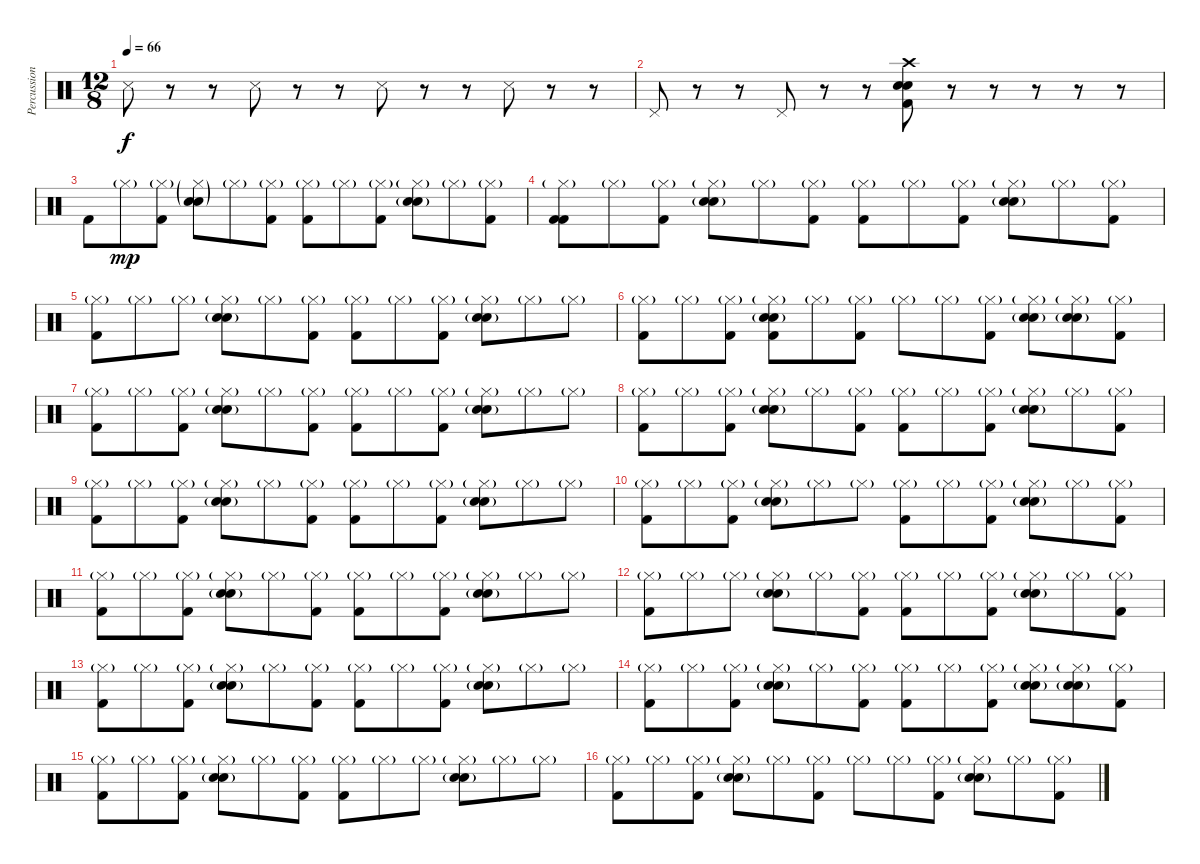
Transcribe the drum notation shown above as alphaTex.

\track ("Percussion" "Percussion") {instrument percussion}
\staff {score}
\articulation defaults
\ts (12 8)
\tempo 66
\clef neutral
\ks c "Snare (side stick) 3".8{dy f}
r.8 r.8 "Snare (side stick) 3".8 r.8 r.8 "Snare (side stick) 3".8 r.8 r.8 "Snare (side stick) 3".8 r.8 r.8 |
"Pedal Hi-Hat (hit)".8 r.8 r.8 "Pedal Hi-Hat (hit)".8 r.8 r.8 ("Crash high (hit)" "Electric Snare (hit)" "Snare (hit) 2" "Kick (hit) 2").8 r.8 r.8 r.8 r.8 r.8 |
"Kick (hit) 2".8 "Hi-Hat (closed)"{g}.8{dy mp} ("Hi-Hat (closed)"{g} "Kick (hit) 2").8 ("Hi-Hat (closed)"{g} "Electric Snare (hit)"{g} "Snare (hit) 2").8 "Hi-Hat (closed)"{g}.8 ("Hi-Hat (closed)"{g} "Kick (hit) 2").8 ("Hi-Hat (closed)"{g} "Kick (hit) 2").8 "Hi-Hat (closed)"{g}.8 ("Hi-Hat (closed)"{g} "Kick (hit) 2").8 ("Hi-Hat (closed)"{g} "Snare (hit) 2" "Electric Snare (hit)"{g}).8 "Hi-Hat (closed)"{g}.8 ("Hi-Hat (closed)"{g} "Kick (hit) 2").8 |
("Hi-Hat (closed)"{g} "Kick (hit) 2" "Kick (hit) 2").8 "Hi-Hat (closed)"{g}.8 ("Hi-Hat (closed)"{g} "Kick (hit) 2").8 ("Hi-Hat (closed)"{g} "Snare (hit) 2" "Electric Snare (hit)"{g}).8 "Hi-Hat (closed)"{g}.8 ("Hi-Hat (closed)"{g} "Kick (hit) 2").8 ("Hi-Hat (closed)"{g} "Kick (hit) 2").8 "Hi-Hat (closed)"{g}.8 ("Hi-Hat (closed)"{g} "Kick (hit) 2").8 ("Hi-Hat (closed)"{g} "Snare (hit) 2" "Electric Snare (hit)"{g}).8 "Hi-Hat (closed)"{g}.8 ("Hi-Hat (closed)"{g} "Kick (hit) 2").8 |
("Hi-Hat (closed)"{g} "Kick (hit) 2").8 "Hi-Hat (closed)"{g}.8 "Hi-Hat (closed)"{g}.8 ("Hi-Hat (closed)"{g} "Snare (hit) 2" "Electric Snare (hit)"{g}).8 "Hi-Hat (closed)"{g}.8 ("Hi-Hat (closed)"{g} "Kick (hit) 2").8 ("Hi-Hat (closed)"{g} "Kick (hit) 2").8 "Hi-Hat (closed)"{g}.8 ("Hi-Hat (closed)"{g} "Kick (hit) 2").8 ("Hi-Hat (closed)"{g} "Snare (hit) 2" "Electric Snare (hit)"{g}).8 "Hi-Hat (closed)"{g}.8 "Hi-Hat (closed)"{g}.8 |
("Hi-Hat (closed)"{g} "Kick (hit) 2").8 "Hi-Hat (closed)"{g}.8 ("Hi-Hat (closed)"{g} "Kick (hit) 2").8 ("Hi-Hat (closed)"{g} "Kick (hit) 2" "Snare (hit) 2" "Electric Snare (hit)"{g}).8 "Hi-Hat (closed)"{g}.8 ("Hi-Hat (closed)"{g} "Kick (hit) 2").8 "Hi-Hat (closed)"{g}.8 "Hi-Hat (closed)"{g}.8 ("Hi-Hat (closed)"{g} "Kick (hit) 2").8 ("Hi-Hat (closed)"{g} "Snare (hit) 2" "Electric Snare (hit)"{g}).8 ("Hi-Hat (closed)"{g} "Snare (hit) 2" "Electric Snare (hit)"{g}).8 ("Hi-Hat (closed)"{g} "Kick (hit) 2").8 |
("Hi-Hat (closed)"{g} "Kick (hit) 2").8 "Hi-Hat (closed)"{g}.8 ("Hi-Hat (closed)"{g} "Kick (hit) 2").8 ("Hi-Hat (closed)"{g} "Snare (hit) 2" "Electric Snare (hit)"{g}).8 "Hi-Hat (closed)"{g}.8 ("Hi-Hat (closed)"{g} "Kick (hit) 2").8 ("Hi-Hat (closed)"{g} "Kick (hit) 2").8 "Hi-Hat (closed)"{g}.8 ("Hi-Hat (closed)"{g} "Kick (hit) 2").8 ("Hi-Hat (closed)"{g} "Snare (hit) 2" "Electric Snare (hit)"{g}).8 "Hi-Hat (closed)"{g}.8 "Hi-Hat (closed)"{g}.8 |
("Hi-Hat (closed)"{g} "Kick (hit) 2").8 "Hi-Hat (closed)"{g}.8 ("Hi-Hat (closed)"{g} "Kick (hit) 2").8 ("Hi-Hat (closed)"{g} "Snare (hit) 2" "Electric Snare (hit)"{g}).8 "Hi-Hat (closed)"{g}.8 ("Hi-Hat (closed)"{g} "Kick (hit) 2").8 ("Hi-Hat (closed)"{g} "Kick (hit) 2").8 "Hi-Hat (closed)"{g}.8 ("Hi-Hat (closed)"{g} "Kick (hit) 2").8 ("Hi-Hat (closed)"{g} "Snare (hit) 2" "Electric Snare (hit)"{g}).8 "Hi-Hat (closed)"{g}.8 ("Hi-Hat (closed)"{g} "Kick (hit) 2").8 |
("Hi-Hat (closed)"{g} "Kick (hit) 2").8 "Hi-Hat (closed)"{g}.8 ("Hi-Hat (closed)"{g} "Kick (hit) 2").8 ("Hi-Hat (closed)"{g} "Snare (hit) 2" "Electric Snare (hit)"{g}).8 "Hi-Hat (closed)"{g}.8 ("Hi-Hat (closed)"{g} "Kick (hit) 2").8 ("Hi-Hat (closed)"{g} "Kick (hit) 2").8 "Hi-Hat (closed)"{g}.8 ("Hi-Hat (closed)"{g} "Kick (hit) 2").8 ("Hi-Hat (closed)"{g} "Snare (hit) 2" "Electric Snare (hit)"{g}).8 "Hi-Hat (closed)"{g}.8 "Hi-Hat (closed)"{g}.8 |
("Hi-Hat (closed)"{g} "Kick (hit) 2").8 "Hi-Hat (closed)"{g}.8 ("Hi-Hat (closed)"{g} "Kick (hit) 2").8 ("Hi-Hat (closed)"{g} "Snare (hit) 2" "Electric Snare (hit)"{g}).8 "Hi-Hat (closed)"{g}.8 "Hi-Hat (closed)"{g}.8 ("Hi-Hat (closed)"{g} "Kick (hit) 2").8 "Hi-Hat (closed)"{g}.8 ("Hi-Hat (closed)"{g} "Kick (hit) 2").8 ("Hi-Hat (closed)"{g} "Snare (hit) 2" "Electric Snare (hit)"{g}).8 "Hi-Hat (closed)"{g}.8 ("Hi-Hat (closed)"{g} "Kick (hit) 2").8 |
("Hi-Hat (closed)"{g} "Kick (hit) 2").8 "Hi-Hat (closed)"{g}.8 ("Hi-Hat (closed)"{g} "Kick (hit) 2").8 ("Hi-Hat (closed)"{g} "Snare (hit) 2" "Electric Snare (hit)"{g}).8 "Hi-Hat (closed)"{g}.8 ("Hi-Hat (closed)"{g} "Kick (hit) 2").8 ("Hi-Hat (closed)"{g} "Kick (hit) 2").8 "Hi-Hat (closed)"{g}.8 ("Hi-Hat (closed)"{g} "Kick (hit) 2").8 ("Hi-Hat (closed)"{g} "Snare (hit) 2" "Electric Snare (hit)"{g}).8 "Hi-Hat (closed)"{g}.8 "Hi-Hat (closed)"{g}.8 |
("Hi-Hat (closed)"{g} "Kick (hit) 2").8 "Hi-Hat (closed)"{g}.8 "Hi-Hat (closed)"{g}.8 ("Hi-Hat (closed)"{g} "Snare (hit) 2" "Electric Snare (hit)"{g}).8 "Hi-Hat (closed)"{g}.8 ("Hi-Hat (closed)"{g} "Kick (hit) 2").8 ("Hi-Hat (closed)"{g} "Kick (hit) 2").8 "Hi-Hat (closed)"{g}.8 ("Hi-Hat (closed)"{g} "Kick (hit) 2").8 ("Hi-Hat (closed)"{g} "Snare (hit) 2" "Electric Snare (hit)"{g}).8 "Hi-Hat (closed)"{g}.8 ("Hi-Hat (closed)"{g} "Kick (hit) 2").8 |
("Hi-Hat (closed)"{g} "Kick (hit) 2").8 "Hi-Hat (closed)"{g}.8 ("Hi-Hat (closed)"{g} "Kick (hit) 2").8 ("Hi-Hat (closed)"{g} "Snare (hit) 2" "Electric Snare (hit)"{g}).8 "Hi-Hat (closed)"{g}.8 ("Hi-Hat (closed)"{g} "Kick (hit) 2").8 ("Hi-Hat (closed)"{g} "Kick (hit) 2").8 "Hi-Hat (closed)"{g}.8 ("Hi-Hat (closed)"{g} "Kick (hit) 2").8 ("Hi-Hat (closed)"{g} "Snare (hit) 2" "Electric Snare (hit)"{g}).8 "Hi-Hat (closed)"{g}.8 "Hi-Hat (closed)"{g}.8 |
("Hi-Hat (closed)"{g} "Kick (hit) 2").8 "Hi-Hat (closed)"{g}.8 ("Hi-Hat (closed)"{g} "Kick (hit) 2").8 ("Hi-Hat (closed)"{g} "Snare (hit) 2" "Electric Snare (hit)"{g}).8 "Hi-Hat (closed)"{g}.8 ("Hi-Hat (closed)"{g} "Kick (hit) 2").8 ("Hi-Hat (closed)"{g} "Kick (hit) 2").8 "Hi-Hat (closed)"{g}.8 ("Hi-Hat (closed)"{g} "Kick (hit) 2").8 ("Hi-Hat (closed)"{g} "Snare (hit) 2" "Electric Snare (hit)"{g}).8 ("Hi-Hat (closed)"{g} "Snare (hit) 2" "Electric Snare (hit)"{g}).8 ("Hi-Hat (closed)"{g} "Kick (hit) 2").8 |
("Hi-Hat (closed)"{g} "Kick (hit) 2").8 "Hi-Hat (closed)"{g}.8 ("Hi-Hat (closed)"{g} "Kick (hit) 2").8 ("Hi-Hat (closed)"{g} "Snare (hit) 2" "Electric Snare (hit)"{g}).8 "Hi-Hat (closed)"{g}.8 ("Hi-Hat (closed)"{g} "Kick (hit) 2").8 ("Hi-Hat (closed)"{g} "Kick (hit) 2").8 "Hi-Hat (closed)"{g}.8 "Hi-Hat (closed)"{g}.8 ("Hi-Hat (closed)"{g} "Snare (hit) 2" "Electric Snare (hit)"{g}).8 "Hi-Hat (closed)"{g}.8 "Hi-Hat (closed)"{g}.8 |
("Hi-Hat (closed)"{g} "Kick (hit) 2").8 "Hi-Hat (closed)"{g}.8 ("Hi-Hat (closed)"{g} "Kick (hit) 2").8 ("Hi-Hat (closed)"{g} "Snare (hit) 2" "Electric Snare (hit)"{g}).8 "Hi-Hat (closed)"{g}.8 ("Hi-Hat (closed)"{g} "Kick (hit) 2").8 "Hi-Hat (closed)"{g}.8 "Hi-Hat (closed)"{g}.8 ("Hi-Hat (closed)"{g} "Kick (hit) 2").8 ("Hi-Hat (closed)"{g} "Snare (hit) 2" "Electric Snare (hit)"{g}).8 "Hi-Hat (closed)"{g}.8 ("Hi-Hat (closed)"{g} "Kick (hit) 2").8
